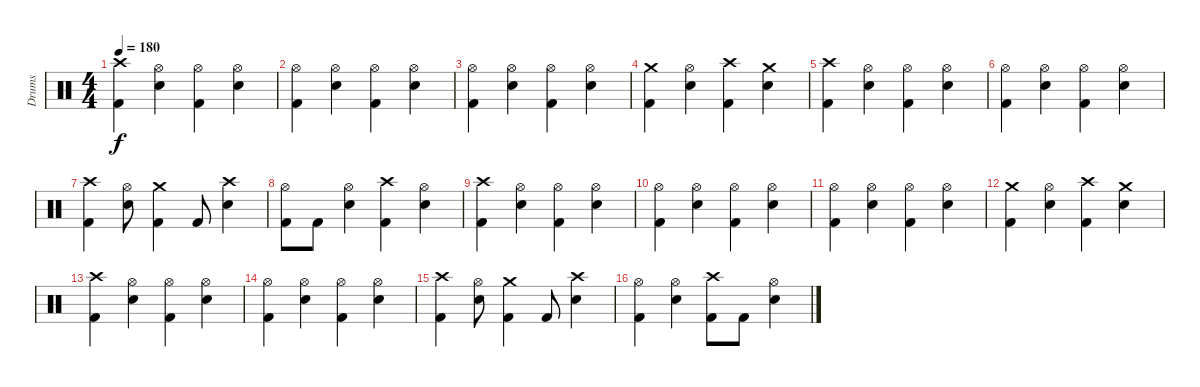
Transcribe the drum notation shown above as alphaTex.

\track ("Drums" "Drums") {instrument percussion}
\staff {score}
\articulation defaults
\ts (4 4)
\tempo 180
\clef neutral
\ks c
("Crash high (hit)" "Kick (hit) 2").4{dy f} ("Hi-Hat (open)" "Snare (hit) 2").4 ("Hi-Hat (open)" "Kick (hit) 2").4 ("Hi-Hat (open)" "Snare (hit) 2").4 |
("Hi-Hat (open)" "Kick (hit) 2").4 ("Hi-Hat (open)" "Snare (hit) 2").4 ("Hi-Hat (open)" "Kick (hit) 2").4 ("Hi-Hat (open)" "Snare (hit) 2").4 |
("Hi-Hat (open)" "Kick (hit) 2").4 ("Hi-Hat (open)" "Snare (hit) 2").4 ("Hi-Hat (open)" "Kick (hit) 2").4 ("Hi-Hat (open)" "Snare (hit) 2").4 |
("Crash medium (hit)" "Kick (hit) 2").4 ("Hi-Hat (open)" "Snare (hit) 2").4 ("Crash high (hit)" "Kick (hit) 2").4 ("Crash medium (hit)" "Snare (hit) 2").4 |
("Crash high (hit)" "Kick (hit) 2").4 ("Hi-Hat (open)" "Snare (hit) 2").4 ("Hi-Hat (open)" "Kick (hit) 2").4 ("Hi-Hat (open)" "Snare (hit) 2").4 |
("Hi-Hat (open)" "Kick (hit) 2").4 ("Hi-Hat (open)" "Snare (hit) 2").4 ("Hi-Hat (open)" "Kick (hit) 2").4 ("Hi-Hat (open)" "Snare (hit) 2").4 |
("Crash high (hit)" "Kick (hit) 2").4 ("Hi-Hat (open)" "Snare (hit) 2").8 ("Crash medium (hit)" "Kick (hit) 2").4 "Kick (hit) 2".8 ("Crash high (hit)" "Snare (hit) 2").4 |
("Hi-Hat (open)" "Kick (hit) 2").8 "Kick (hit) 2".8 ("Hi-Hat (open)" "Snare (hit) 2").4 ("Crash high (hit)" "Kick (hit) 2").4 ("Hi-Hat (open)" "Snare (hit) 2").4 |
("Crash high (hit)" "Kick (hit) 2").4 ("Hi-Hat (open)" "Snare (hit) 2").4 ("Hi-Hat (open)" "Kick (hit) 2").4 ("Hi-Hat (open)" "Snare (hit) 2").4 |
("Hi-Hat (open)" "Kick (hit) 2").4 ("Hi-Hat (open)" "Snare (hit) 2").4 ("Hi-Hat (open)" "Kick (hit) 2").4 ("Hi-Hat (open)" "Snare (hit) 2").4 |
("Hi-Hat (open)" "Kick (hit) 2").4 ("Hi-Hat (open)" "Snare (hit) 2").4 ("Hi-Hat (open)" "Kick (hit) 2").4 ("Hi-Hat (open)" "Snare (hit) 2").4 |
("Crash medium (hit)" "Kick (hit) 2").4 ("Hi-Hat (open)" "Snare (hit) 2").4 ("Crash high (hit)" "Kick (hit) 2").4 ("Crash medium (hit)" "Snare (hit) 2").4 |
("Crash high (hit)" "Kick (hit) 2").4 ("Hi-Hat (open)" "Snare (hit) 2").4 ("Hi-Hat (open)" "Kick (hit) 2").4 ("Hi-Hat (open)" "Snare (hit) 2").4 |
("Hi-Hat (open)" "Kick (hit) 2").4 ("Hi-Hat (open)" "Snare (hit) 2").4 ("Hi-Hat (open)" "Kick (hit) 2").4 ("Hi-Hat (open)" "Snare (hit) 2").4 |
("Crash high (hit)" "Kick (hit) 2").4 ("Hi-Hat (open)" "Snare (hit) 2").8 ("Crash medium (hit)" "Kick (hit) 2").4 "Kick (hit) 2".8 ("Crash high (hit)" "Snare (hit) 2").4 |
("Hi-Hat (open)" "Kick (hit) 2").4 ("Hi-Hat (open)" "Snare (hit) 2").4 ("Crash high (hit)" "Kick (hit) 2").8 "Kick (hit) 2".8 ("Hi-Hat (open)" "Snare (hit) 2").4
